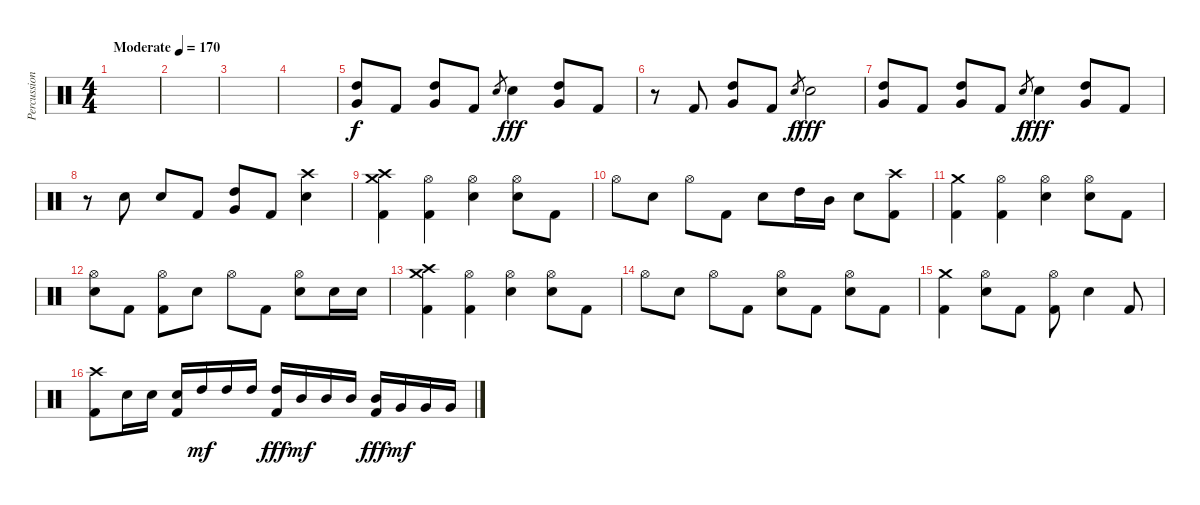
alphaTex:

\track ("Percussion" "Percussion") {instrument percussion}
\staff {score}
\articulation defaults
\ts (4 4)
\tempo (170 "Moderate")
\clef neutral
\ks c
|
|
|
|
("High Tom (hit)" "Very Low Tom (hit)").8 "Kick (hit) 2".8 ("High Tom (hit)" "Very Low Tom (hit)").8 "Kick (hit) 2".8 "Snare (hit) 2".8{gr dy f} "Snare (hit) 2".4{dy fff} ("High Tom (hit)" "Very Low Tom (hit)").8 "Kick (hit) 2".8 |
r.8 "Kick (hit) 2".8 ("High Tom (hit)" "Very Low Tom (hit)").8 "Kick (hit) 2".8 "Snare (hit) 2".8{gr dy f} "Snare (hit) 2".2{txt "" dy fff} |
("High Tom (hit)" "Very Low Tom (hit)").8 "Kick (hit) 2".8 ("High Tom (hit)" "Very Low Tom (hit)").8 "Kick (hit) 2".8 "Snare (hit) 2".8{gr dy f} "Snare (hit) 2".4{dy fff} ("High Tom (hit)" "Very Low Tom (hit)").8 "Kick (hit) 2".8 |
r.8 "Snare (hit) 2".8 "Snare (hit) 2".8 "Kick (hit) 2".8 ("High Tom (hit)" "Very Low Tom (hit)").8 "Kick (hit) 2".8 ("Crash high (hit)" "Snare (hit) 2").4 |
("Crash medium (hit)" "Crash high (hit)" "Kick (hit) 2").4 ("Kick (hit) 2" "Hi-Hat (open)").4 ("Hi-Hat (open)" "Snare (hit) 2").4 ("Hi-Hat (open)" "Snare (hit) 2").8 "Kick (hit) 2".8 |
"Hi-Hat (open)".8 "Snare (hit) 2".8 "Hi-Hat (open)".8 "Kick (hit) 2".8 "Snare (hit) 2".8 "High Tom (hit)".16 "Mid Tom (hit)".16 "Snare (hit) 2".8 ("Crash high (hit)" "Kick (hit) 2").8 |
("Crash medium (hit)" "Kick (hit) 2").4 ("Kick (hit) 2" "Hi-Hat (open)").4 ("Hi-Hat (open)" "Snare (hit) 2").4 ("Hi-Hat (open)" "Snare (hit) 2").8 "Kick (hit) 2".8 |
("Snare (hit) 2" "Hi-Hat (open)").8 "Kick (hit) 2".8 ("Kick (hit) 2" "Hi-Hat (open)").8 "Snare (hit) 2".8 "Hi-Hat (open)".8 "Kick (hit) 2".8 ("Hi-Hat (open)" "Snare (hit) 2").8 "Snare (hit) 2".16 "Snare (hit) 2".16 |
("Crash medium (hit)" "Crash high (hit)" "Kick (hit) 2").4 ("Kick (hit) 2" "Hi-Hat (open)").4 ("Hi-Hat (open)" "Snare (hit) 2").4 ("Hi-Hat (open)" "Snare (hit) 2").8 "Kick (hit) 2".8 |
"Hi-Hat (open)".8 "Snare (hit) 2".8 "Hi-Hat (open)".8 "Kick (hit) 2".8 ("Hi-Hat (open)" "Snare (hit) 2").8 "Kick (hit) 2".8 ("Hi-Hat (open)" "Snare (hit) 2").8 "Kick (hit) 2".8 |
("Crash medium (hit)" "Kick (hit) 2").4 ("Snare (hit) 2" "Hi-Hat (open)").8 "Kick (hit) 2".8 ("Kick (hit) 2" "Hi-Hat (open)").8 "Snare (hit) 2".4 "Kick (hit) 2".8 |
("Crash high (hit)" "Kick (hit) 2").8 "Snare (hit) 2".16 "Snare (hit) 2".16 ("Snare (hit) 2" "Kick (hit) 2").16 "High Tom (hit)".16{dy mf} "High Tom (hit)".16 "High Tom (hit)".16 ("High Tom (hit)" "Kick (hit) 2").16{dy fff} "Mid Tom (hit)".16{dy mf} "Mid Tom (hit)".16 "Mid Tom (hit)".16 ("Mid Tom (hit)" "Kick (hit) 2").16{dy fff} "Very Low Tom (hit)".16{dy mf} "Very Low Tom (hit)".16 "Very Low Tom (hit)".16
